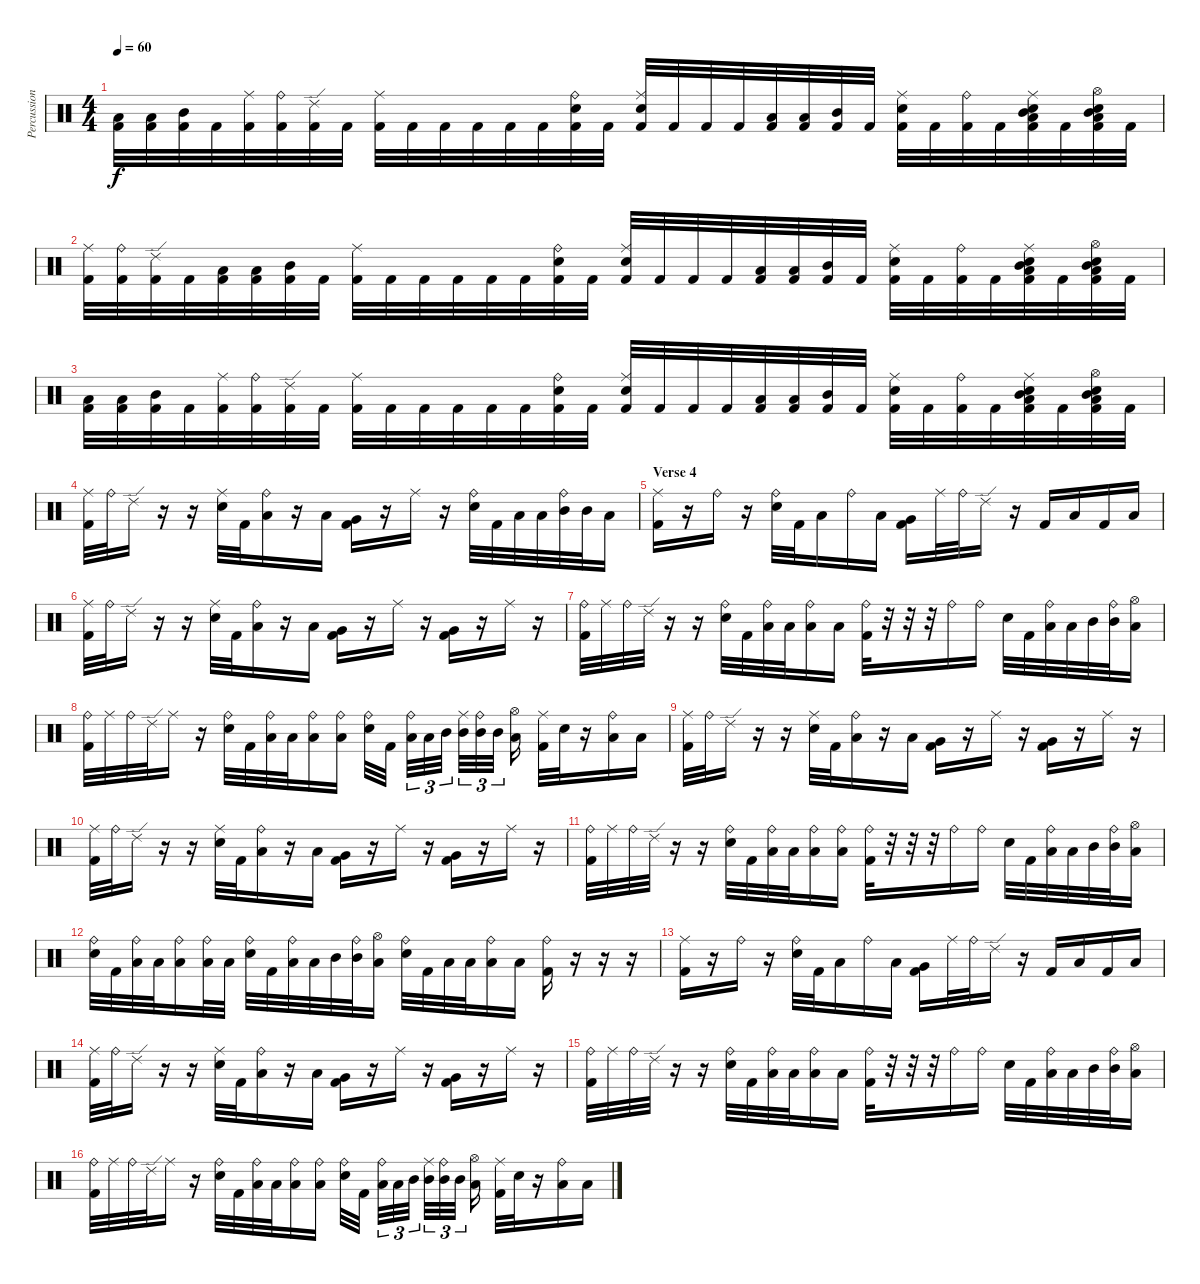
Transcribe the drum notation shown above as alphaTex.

\track ("Percussion" "Percussion") {instrument percussion}
\staff {score}
\articulation defaults
\ts (4 4)
\tempo 60
\clef neutral
\ks c
("Low Tom (hit)" "Kick (hit) 2").32{dy f} ("Low Tom (hit)" "Kick (hit) 2").32 ("Mid Tom (hit)" "Kick (hit) 2").32 "Kick (hit) 2".32 ("Ride (middle)" "Kick (hit) 2").32 ("Ride (bell)" "Kick (hit) 2").32 ("Ride (edge) 2" "Kick (hit) 2").32 "Kick (hit) 2".32 ("Ride (middle)" "Kick (hit) 2").32 "Kick (hit) 2".32 "Kick (hit) 2".32 "Kick (hit) 2".32 "Kick (hit) 2".32 "Kick (hit) 2".32 ("Ride (bell)" "Electric Snare (hit)" "Kick (hit) 2").32 "Kick (hit) 2".32 ("Ride (middle)" "Electric Snare (hit)" "Kick (hit) 2").32 "Kick (hit) 2".32 "Kick (hit) 2".32 "Kick (hit) 2".32 ("Low Tom (hit)" "Kick (hit) 2").32 ("Low Tom (hit)" "Kick (hit) 2").32 ("Mid Tom (hit)" "Kick (hit) 2").32 "Kick (hit) 2".32 ("Ride (middle)" "Electric Snare (hit)" "Kick (hit) 2").32 "Kick (hit) 2".32 ("Ride (bell)" "Kick (hit) 2").32 "Kick (hit) 2".32 ("Ride (middle)" "Mid Tom (hit)" "Low Tom (hit)" "Electric Snare (hit)" "Kick (hit) 2").32 "Kick (hit) 2".32 ("Hi-Hat (open)" "Mid Tom (hit)" "Low Tom (hit)" "Electric Snare (hit)" "Kick (hit) 2").32 "Kick (hit) 2".32 |
("Ride (middle)" "Kick (hit) 2").32 ("Ride (bell)" "Kick (hit) 2").32 ("Ride (edge) 2" "Kick (hit) 2").32 "Kick (hit) 2".32 ("Low Tom (hit)" "Kick (hit) 2").32 ("Low Tom (hit)" "Kick (hit) 2").32 ("Mid Tom (hit)" "Kick (hit) 2").32 "Kick (hit) 2".32 ("Ride (middle)" "Kick (hit) 2").32 "Kick (hit) 2".32 "Kick (hit) 2".32 "Kick (hit) 2".32 "Kick (hit) 2".32 "Kick (hit) 2".32 ("Ride (bell)" "Electric Snare (hit)" "Kick (hit) 2").32 "Kick (hit) 2".32 ("Ride (middle)" "Electric Snare (hit)" "Kick (hit) 2").32 "Kick (hit) 2".32 "Kick (hit) 2".32 "Kick (hit) 2".32 ("Low Tom (hit)" "Kick (hit) 2").32 ("Low Tom (hit)" "Kick (hit) 2").32 ("Mid Tom (hit)" "Kick (hit) 2").32 "Kick (hit) 2".32 ("Ride (middle)" "Electric Snare (hit)" "Kick (hit) 2").32 "Kick (hit) 2".32 ("Ride (bell)" "Kick (hit) 2").32 "Kick (hit) 2".32 ("Ride (middle)" "Mid Tom (hit)" "Low Tom (hit)" "Electric Snare (hit)" "Kick (hit) 2").32 "Kick (hit) 2".32 ("Hi-Hat (open)" "Mid Tom (hit)" "Low Tom (hit)" "Electric Snare (hit)" "Kick (hit) 2").32 "Kick (hit) 2".32 |
("Low Tom (hit)" "Kick (hit) 2").32 ("Low Tom (hit)" "Kick (hit) 2").32 ("Mid Tom (hit)" "Kick (hit) 2").32 "Kick (hit) 2".32 ("Ride (middle)" "Kick (hit) 2").32 ("Ride (bell)" "Kick (hit) 2").32 ("Ride (edge) 2" "Kick (hit) 2").32 "Kick (hit) 2".32 ("Ride (middle)" "Kick (hit) 2").32 "Kick (hit) 2".32 "Kick (hit) 2".32 "Kick (hit) 2".32 "Kick (hit) 2".32 "Kick (hit) 2".32 ("Ride (bell)" "Electric Snare (hit)" "Kick (hit) 2").32 "Kick (hit) 2".32 ("Ride (middle)" "Electric Snare (hit)" "Kick (hit) 2").32 "Kick (hit) 2".32 "Kick (hit) 2".32 "Kick (hit) 2".32 ("Low Tom (hit)" "Kick (hit) 2").32 ("Low Tom (hit)" "Kick (hit) 2").32 ("Mid Tom (hit)" "Kick (hit) 2").32 "Kick (hit) 2".32 ("Ride (middle)" "Electric Snare (hit)" "Kick (hit) 2").32 "Kick (hit) 2".32 ("Ride (bell)" "Kick (hit) 2").32 "Kick (hit) 2".32 ("Ride (middle)" "Mid Tom (hit)" "Low Tom (hit)" "Electric Snare (hit)" "Kick (hit) 2").32 "Kick (hit) 2".32 ("Hi-Hat (open)" "Mid Tom (hit)" "Low Tom (hit)" "Electric Snare (hit)" "Kick (hit) 2").32 "Kick (hit) 2".32 |
("Ride (middle)" "Kick (hit) 2").32 "Ride (bell)".32 "Ride (edge) 2".16 r.16 r.16 ("Ride (middle)" "Electric Snare (hit)").32 "Kick (hit) 2".32 ("Ride (bell)" "Low Tom (hit)").16 r.16 "Low Tom (hit)".16 ("Very Low Tom (hit)" "Kick (hit) 2").16 r.16 "Ride (middle)".16 r.16 ("Ride (bell)" "Electric Snare (hit)").32 "Kick (hit) 2".32 "Low Tom (hit)".32 "Low Tom (hit)".32 ("Ride (bell)" "Mid Tom (hit)").32 "Mid Tom (hit)".32 "Low Tom (hit)".16 |
\section ("" "Verse 4")
("Ride (middle)" "Kick (hit) 2").16 r.16 "Ride (bell)".16 r.16 ("Ride (bell)" "Electric Snare (hit)").32 "Kick (hit) 2".32 "Low Tom (hit)".16 "Ride (bell)".16 "Low Tom (hit)".16 ("Very Low Tom (hit)" "Kick (hit) 2").16 "Ride (middle)".32 "Ride (bell)".32 "Ride (edge) 2".16 r.16 "Kick (hit) 2".16 "Low Tom (hit)".16 "Kick (hit) 2".16 "Low Tom (hit)".16 |
("Ride (middle)" "Kick (hit) 2").32 "Ride (bell)".32 "Ride (edge) 2".16 r.16 r.16 ("Ride (middle)" "Electric Snare (hit)").32 "Kick (hit) 2".32 ("Ride (bell)" "Low Tom (hit)").16 r.16 "Low Tom (hit)".16 ("Very Low Tom (hit)" "Kick (hit) 2").16 r.16 "Ride (middle)".16 r.16 ("Very Low Tom (hit)" "Kick (hit) 2").16 r.16 "Ride (middle)".16 r.16 |
("Ride (bell)" "Kick (hit) 2").32 "Ride (middle)".32 "Ride (bell)".32 "Ride (edge) 2".32 r.16 r.16 ("Ride (bell)" "Electric Snare (hit)").32 "Kick (hit) 2".32 ("Ride (bell)" "Low Tom (hit)").32 "Low Tom (hit)".32 ("Ride (bell)" "Low Tom (hit)").16 "Low Tom (hit)".16 ("Ride (bell)" "Kick (hit) 2").32 r.32 r.32 r.32 "Ride (bell)".16 "Ride (bell)".16 "Electric Snare (hit)".32 "Kick (hit) 2".32 ("Ride (bell)" "Low Tom (hit)").32 "Low Tom (hit)".32 "Mid Tom (hit)".32 ("Ride (bell)" "Mid Tom (hit)").32 ("Hi-Hat (open)" "Low Tom (hit)").16 |
("Ride (bell)" "Kick (hit) 2").32 "Ride (middle)".32 "Ride (bell)".32 "Ride (edge) 2".32 "Ride (middle)".16 r.16 ("Ride (bell)" "Electric Snare (hit)").32 "Kick (hit) 2".32 ("Ride (bell)" "Low Tom (hit)").32 "Low Tom (hit)".32 ("Ride (bell)" "Low Tom (hit)").16 ("Ride (bell)" "Low Tom (hit)").16 ("Ride (bell)" "Electric Snare (hit)").32 "Kick (hit) 2".32 ("Ride (bell)" "Low Tom (hit)").32{tu (3 2)} "Low Tom (hit)".32{tu (3 2)} "Mid Tom (hit)".32{tu (3 2)} ("Ride (middle)" "Mid Tom (hit)").32{tu (3 2)} ("Ride (bell)" "Mid Tom (hit)").32{tu (3 2)} "Mid Tom (hit)".32{tu (3 2)} ("Hi-Hat (open)" "Low Tom (hit)").16 ("Ride (middle)" "Kick (hit) 2").32 "Electric Snare (hit)".32 r.16 ("Ride (bell)" "Low Tom (hit)").16 "Low Tom (hit)".16 |
("Ride (middle)" "Kick (hit) 2").32 "Ride (bell)".32 "Ride (edge) 2".16 r.16 r.16 ("Ride (middle)" "Electric Snare (hit)").32 "Kick (hit) 2".32 ("Ride (bell)" "Low Tom (hit)").16 r.16 "Low Tom (hit)".16 ("Very Low Tom (hit)" "Kick (hit) 2").16 r.16 "Ride (middle)".16 r.16 ("Very Low Tom (hit)" "Kick (hit) 2").16 r.16 "Ride (middle)".16 r.16 |
("Ride (middle)" "Kick (hit) 2").32 "Ride (bell)".32 "Ride (edge) 2".16 r.16 r.16 ("Ride (middle)" "Electric Snare (hit)").32 "Kick (hit) 2".32 ("Ride (bell)" "Low Tom (hit)").16 r.16 "Low Tom (hit)".16 ("Very Low Tom (hit)" "Kick (hit) 2").16 r.16 "Ride (middle)".16 r.16 ("Very Low Tom (hit)" "Kick (hit) 2").16 r.16 "Ride (middle)".16 r.16 |
("Ride (bell)" "Kick (hit) 2").32 "Ride (middle)".32 "Ride (bell)".32 "Ride (edge) 2".32 r.16 r.16 ("Ride (bell)" "Electric Snare (hit)").32 "Kick (hit) 2".32 ("Ride (bell)" "Low Tom (hit)").32 "Low Tom (hit)".32 ("Ride (bell)" "Low Tom (hit)").16 ("Ride (bell)" "Low Tom (hit)").16 ("Ride (bell)" "Kick (hit) 2").32 r.32 r.32 r.32 "Ride (bell)".16 "Ride (bell)".16 "Electric Snare (hit)".32 "Kick (hit) 2".32 ("Ride (bell)" "Low Tom (hit)").32 "Low Tom (hit)".32 "Mid Tom (hit)".32 ("Ride (bell)" "Mid Tom (hit)").32 ("Hi-Hat (open)" "Low Tom (hit)").16 |
("Ride (bell)" "Electric Snare (hit)").32 "Kick (hit) 2".32 ("Ride (bell)" "Low Tom (hit)").32 "Low Tom (hit)".32 ("Ride (bell)" "Low Tom (hit)").16 ("Ride (bell)" "Low Tom (hit)").32 "Low Tom (hit)".32 ("Ride (bell)" "Electric Snare (hit)").32 "Kick (hit) 2".32 ("Ride (bell)" "Low Tom (hit)").32 "Low Tom (hit)".32 "Mid Tom (hit)".32 ("Ride (bell)" "Mid Tom (hit)").32 ("Hi-Hat (open)" "Low Tom (hit)").16 ("Ride (bell)" "Electric Snare (hit)").32 "Kick (hit) 2".32 "Low Tom (hit)".32 "Low Tom (hit)".32 ("Ride (bell)" "Low Tom (hit)").16 "Low Tom (hit)".16 ("Ride (bell)" "Kick (hit) 2").16 r.16 r.16 r.16 |
("Ride (middle)" "Kick (hit) 2").16 r.16 "Ride (bell)".16 r.16 ("Ride (bell)" "Electric Snare (hit)").32 "Kick (hit) 2".32 "Low Tom (hit)".16 "Ride (bell)".16 "Low Tom (hit)".16 ("Very Low Tom (hit)" "Kick (hit) 2").16 "Ride (middle)".32 "Ride (bell)".32 "Ride (edge) 2".16 r.16 "Kick (hit) 2".16 "Low Tom (hit)".16 "Kick (hit) 2".16 "Low Tom (hit)".16 |
("Ride (middle)" "Kick (hit) 2").32 "Ride (bell)".32 "Ride (edge) 2".16 r.16 r.16 ("Ride (middle)" "Electric Snare (hit)").32 "Kick (hit) 2".32 ("Ride (bell)" "Low Tom (hit)").16 r.16 "Low Tom (hit)".16 ("Very Low Tom (hit)" "Kick (hit) 2").16 r.16 "Ride (middle)".16 r.16 ("Very Low Tom (hit)" "Kick (hit) 2").16 r.16 "Ride (middle)".16 r.16 |
("Ride (bell)" "Kick (hit) 2").32 "Ride (middle)".32 "Ride (bell)".32 "Ride (edge) 2".32 r.16 r.16 ("Ride (bell)" "Electric Snare (hit)").32 "Kick (hit) 2".32 ("Ride (bell)" "Low Tom (hit)").32 "Low Tom (hit)".32 ("Ride (bell)" "Low Tom (hit)").16 "Low Tom (hit)".16 ("Ride (bell)" "Kick (hit) 2").32 r.32 r.32 r.32 "Ride (bell)".16 "Ride (bell)".16 "Electric Snare (hit)".32 "Kick (hit) 2".32 ("Ride (bell)" "Low Tom (hit)").32 "Low Tom (hit)".32 "Mid Tom (hit)".32 ("Ride (bell)" "Mid Tom (hit)").32 ("Hi-Hat (open)" "Low Tom (hit)").16 |
("Ride (bell)" "Kick (hit) 2").32 "Ride (middle)".32 "Ride (bell)".32 "Ride (edge) 2".32 "Ride (middle)".16 r.16 ("Ride (bell)" "Electric Snare (hit)").32 "Kick (hit) 2".32 ("Ride (bell)" "Low Tom (hit)").32 "Low Tom (hit)".32 ("Ride (bell)" "Low Tom (hit)").16 ("Ride (bell)" "Low Tom (hit)").16 ("Ride (bell)" "Electric Snare (hit)").32 "Kick (hit) 2".32 ("Ride (bell)" "Low Tom (hit)").32{tu (3 2)} "Low Tom (hit)".32{tu (3 2)} "Mid Tom (hit)".32{tu (3 2)} ("Ride (middle)" "Mid Tom (hit)").32{tu (3 2)} ("Ride (bell)" "Mid Tom (hit)").32{tu (3 2)} "Mid Tom (hit)".32{tu (3 2)} ("Hi-Hat (open)" "Low Tom (hit)").16 ("Ride (middle)" "Kick (hit) 2").32 "Electric Snare (hit)".32 r.16 ("Ride (bell)" "Low Tom (hit)").16 "Low Tom (hit)".16
